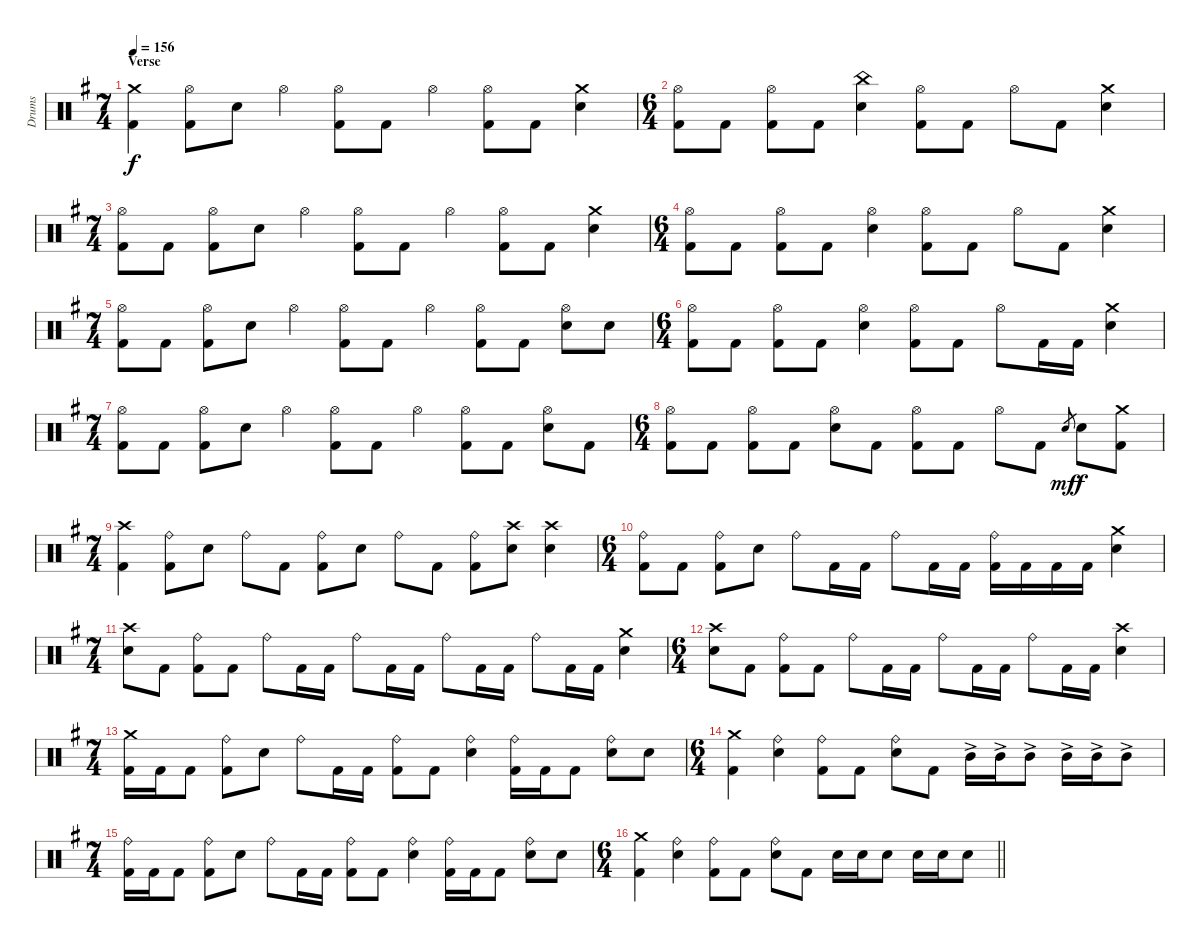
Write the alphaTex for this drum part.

\defaultSystemsLayout 4
\bracketExtendMode groupsimilarinstruments
\otherSystemsTrackNameOrientation horizontal
\track ("Drumkit" "Drums") {multiBarRest instrument percussion}
\staff {score}
\articulation defaults
\ts (7 4)
\beaming (8 2 2 2 2 2 2 2)
\section ("" "Verse")
\tempo 156
\clef neutral
\ks g
("Crash medium (hit)"{acc forcenatural} "Kick (hit) 2"{acc forcenatural}).4{dy f} ("Hi-Hat (open)"{acc forcenatural} "Kick (hit) 2"{acc forcenatural}).8 "Snare (hit) 2"{acc forcenatural}.8 "Hi-Hat (open)"{acc forcenatural}.4 ("Hi-Hat (open)"{acc forcenatural} "Kick (hit) 2"{acc forcenatural}).8 "Kick (hit) 2"{acc forcenatural}.8 "Hi-Hat (open)"{acc forcenatural}.4 ("Hi-Hat (open)"{acc forcenatural} "Kick (hit) 2"{acc forcenatural}).8 "Kick (hit) 2"{acc forcenatural}.8 ("Crash medium (hit)"{acc forcenatural} "Snare (hit) 2"{acc forcenatural}).4 |
\ts (6 4)
\beaming (8 2 2 2 2 2 2 2)
("Hi-Hat (open)"{acc forcenatural} "Kick (hit) 2"{acc forcenatural}).8 "Kick (hit) 2"{acc forcenatural}.8 ("Hi-Hat (open)"{acc forcenatural} "Kick (hit) 2"{acc forcenatural}).8 "Kick (hit) 2"{acc forcenatural}.8 ("Snare (hit) 2"{acc forcenatural} "China (hit)"{acc forcenatural}).4 ("Hi-Hat (open)"{acc forcenatural} "Kick (hit) 2"{acc forcenatural}).8 "Kick (hit) 2"{acc forcenatural}.8 "Hi-Hat (open)"{acc forcenatural}.8 "Kick (hit) 2"{acc forcenatural}.8 ("Crash medium (hit)"{acc forcenatural} "Snare (hit) 2"{acc forcenatural}).4 |
\ts (7 4)
\beaming (8 2 2 2 2 2 2 2)
("Hi-Hat (open)"{acc forcenatural} "Kick (hit) 2"{acc forcenatural}).8 "Kick (hit) 2"{acc forcenatural}.8 ("Hi-Hat (open)"{acc forcenatural} "Kick (hit) 2"{acc forcenatural}).8 "Snare (hit) 2"{acc forcenatural}.8 "Hi-Hat (open)"{acc forcenatural}.4 ("Hi-Hat (open)"{acc forcenatural} "Kick (hit) 2"{acc forcenatural}).8 "Kick (hit) 2"{acc forcenatural}.8 "Hi-Hat (open)"{acc forcenatural}.4 ("Hi-Hat (open)"{acc forcenatural} "Kick (hit) 2"{acc forcenatural}).8 "Kick (hit) 2"{acc forcenatural}.8 ("Crash medium (hit)"{acc forcenatural} "Snare (hit) 2"{acc forcenatural}).4 |
\ts (6 4)
\beaming (8 2 2 2 2 2 2 2)
("Hi-Hat (open)"{acc forcenatural} "Kick (hit) 2"{acc forcenatural}).8 "Kick (hit) 2"{acc forcenatural}.8 ("Hi-Hat (open)"{acc forcenatural} "Kick (hit) 2"{acc forcenatural}).8 "Kick (hit) 2"{acc forcenatural}.8 ("Hi-Hat (open)"{acc forcenatural} "Snare (hit) 2"{acc forcenatural}).4 ("Hi-Hat (open)"{acc forcenatural} "Kick (hit) 2"{acc forcenatural}).8 "Kick (hit) 2"{acc forcenatural}.8 "Hi-Hat (open)"{acc forcenatural}.8 "Kick (hit) 2"{acc forcenatural}.8 ("Crash medium (hit)"{acc forcenatural} "Snare (hit) 2"{acc forcenatural}).4 |
\ts (7 4)
\beaming (8 2 2 2 2 2 2 2)
("Hi-Hat (open)"{acc forcenatural} "Kick (hit) 2"{acc forcenatural}).8 "Kick (hit) 2"{acc forcenatural}.8 ("Hi-Hat (open)"{acc forcenatural} "Kick (hit) 2"{acc forcenatural}).8 "Snare (hit) 2"{acc forcenatural}.8 "Hi-Hat (open)"{acc forcenatural}.4 ("Hi-Hat (open)"{acc forcenatural} "Kick (hit) 2"{acc forcenatural}).8 "Kick (hit) 2"{acc forcenatural}.8 "Hi-Hat (open)"{acc forcenatural}.4 ("Hi-Hat (open)"{acc forcenatural} "Kick (hit) 2"{acc forcenatural}).8 "Kick (hit) 2"{acc forcenatural}.8 ("Hi-Hat (open)"{acc forcenatural} "Snare (hit) 2"{acc forcenatural}).8 "Snare (hit) 2"{acc forcenatural}.8 |
\ts (6 4)
\beaming (8 2 2 2 2 2 2 2)
("Hi-Hat (open)"{acc forcenatural} "Kick (hit) 2"{acc forcenatural}).8 "Kick (hit) 2"{acc forcenatural}.8 ("Hi-Hat (open)"{acc forcenatural} "Kick (hit) 2"{acc forcenatural}).8 "Kick (hit) 2"{acc forcenatural}.8 ("Hi-Hat (open)"{acc forcenatural} "Snare (hit) 2"{acc forcenatural}).4 ("Hi-Hat (open)"{acc forcenatural} "Kick (hit) 2"{acc forcenatural}).8 "Kick (hit) 2"{acc forcenatural}.8 "Hi-Hat (open)"{acc forcenatural}.8 "Kick (hit) 2"{acc forcenatural}.16 "Kick (hit) 2"{acc forcenatural}.16 ("Crash medium (hit)"{acc forcenatural} "Snare (hit) 2"{acc forcenatural}).4 |
\ts (7 4)
\beaming (8 2 2 2 2 2 2 2)
("Hi-Hat (open)"{acc forcenatural} "Kick (hit) 2"{acc forcenatural}).8 "Kick (hit) 2"{acc forcenatural}.8 ("Hi-Hat (open)"{acc forcenatural} "Kick (hit) 2"{acc forcenatural}).8 "Snare (hit) 2"{acc forcenatural}.8 "Hi-Hat (open)"{acc forcenatural}.4 ("Hi-Hat (open)"{acc forcenatural} "Kick (hit) 2"{acc forcenatural}).8 "Kick (hit) 2"{acc forcenatural}.8 "Hi-Hat (open)"{acc forcenatural}.4 ("Hi-Hat (open)"{acc forcenatural} "Kick (hit) 2"{acc forcenatural}).8 "Kick (hit) 2"{acc forcenatural}.8 ("Hi-Hat (open)"{acc forcenatural} "Snare (hit) 2"{acc forcenatural}).8 "Kick (hit) 2"{acc forcenatural}.8 |
\ts (6 4)
\beaming (8 2 2 2 2 2 2 2)
("Hi-Hat (open)"{acc forcenatural} "Kick (hit) 2"{acc forcenatural}).8 "Kick (hit) 2"{acc forcenatural}.8 ("Hi-Hat (open)"{acc forcenatural} "Kick (hit) 2"{acc forcenatural}).8 "Kick (hit) 2"{acc forcenatural}.8 ("Hi-Hat (open)"{acc forcenatural} "Snare (hit) 2"{acc forcenatural}).8 "Kick (hit) 2"{acc forcenatural}.8 ("Hi-Hat (open)"{acc forcenatural} "Kick (hit) 2"{acc forcenatural}).8 "Kick (hit) 2"{acc forcenatural}.8 "Hi-Hat (open)"{acc forcenatural}.8 "Kick (hit) 2"{acc forcenatural}.8 "Snare (hit) 2"{acc forcenatural}.8{gr dy mf} "Snare (hit) 2"{acc forcenatural}.8{dy f} ("Crash medium (hit)"{acc forcenatural} "Kick (hit) 2"{acc forcenatural}).8 |
\ts (7 4)
\beaming (8 2 2 2 2 2 2 2)
("Crash high (hit)"{acc forcenatural} "Kick (hit) 2"{acc forcenatural}).4 ("Ride (bell)"{acc forcenatural} "Kick (hit) 2"{acc forcenatural}).8 "Snare (hit) 2"{acc forcenatural}.8 "Ride (bell)"{acc forcenatural}.8 "Kick (hit) 2"{acc forcenatural}.8 ("Ride (bell)"{acc forcenatural} "Kick (hit) 2"{acc forcenatural}).8 "Snare (hit) 2"{acc forcenatural}.8 "Ride (bell)"{acc forcenatural}.8 "Kick (hit) 2"{acc forcenatural}.8 ("Ride (bell)"{acc forcenatural} "Kick (hit) 2"{acc forcenatural}).8 ("Crash high (hit)"{acc forcenatural} "Snare (hit) 2"{acc forcenatural}).8 ("Crash high (hit)"{acc forcenatural} "Snare (hit) 2"{acc forcenatural}).4 |
\ts (6 4)
\beaming (8 2 2 2 2 2 2 2)
("Ride (bell)"{acc forcenatural} "Kick (hit) 2"{acc forcenatural}).8 "Kick (hit) 2"{acc forcenatural}.8 ("Ride (bell)"{acc forcenatural} "Kick (hit) 2"{acc forcenatural}).8 "Snare (hit) 2"{acc forcenatural}.8 "Ride (bell)"{acc forcenatural}.8 "Kick (hit) 2"{acc forcenatural}.16 "Kick (hit) 2"{acc forcenatural}.16 "Ride (bell)"{acc forcenatural}.8 "Kick (hit) 2"{acc forcenatural}.16 "Kick (hit) 2"{acc forcenatural}.16 ("Ride (bell)"{acc forcenatural} "Kick (hit) 2"{acc forcenatural}).16 "Kick (hit) 2"{acc forcenatural}.16 "Kick (hit) 2"{acc forcenatural}.16 "Kick (hit) 2"{acc forcenatural}.16 ("Crash medium (hit)"{acc forcenatural} "Snare (hit) 2"{acc forcenatural}).4 |
\ts (7 4)
\beaming (8 2 2 2 2 2 2 2)
("Crash high (hit)"{acc forcenatural} "Snare (hit) 2"{acc forcenatural}).8 "Kick (hit) 2"{acc forcenatural}.8 ("Ride (bell)"{acc forcenatural} "Kick (hit) 2"{acc forcenatural}).8 "Kick (hit) 2"{acc forcenatural}.8 "Ride (bell)"{acc forcenatural}.8 "Kick (hit) 2"{acc forcenatural}.16 "Kick (hit) 2"{acc forcenatural}.16 "Ride (bell)"{acc forcenatural}.8 "Kick (hit) 2"{acc forcenatural}.16 "Kick (hit) 2"{acc forcenatural}.16 "Ride (bell)"{acc forcenatural}.8 "Kick (hit) 2"{acc forcenatural}.16 "Kick (hit) 2"{acc forcenatural}.16 "Ride (bell)"{acc forcenatural}.8 "Kick (hit) 2"{acc forcenatural}.16 "Kick (hit) 2"{acc forcenatural}.16 ("Crash medium (hit)"{acc forcenatural} "Snare (hit) 2"{acc forcenatural}).4 |
\ts (6 4)
\beaming (8 2 2 2 2 2 2 2)
("Crash high (hit)"{acc forcenatural} "Snare (hit) 2"{acc forcenatural}).8 "Kick (hit) 2"{acc forcenatural}.8 ("Ride (bell)"{acc forcenatural} "Kick (hit) 2"{acc forcenatural}).8 "Kick (hit) 2"{acc forcenatural}.8 "Ride (bell)"{acc forcenatural}.8 "Kick (hit) 2"{acc forcenatural}.16 "Kick (hit) 2"{acc forcenatural}.16 "Ride (bell)"{acc forcenatural}.8 "Kick (hit) 2"{acc forcenatural}.16 "Kick (hit) 2"{acc forcenatural}.16 "Ride (bell)"{acc forcenatural}.8 "Kick (hit) 2"{acc forcenatural}.16 "Kick (hit) 2"{acc forcenatural}.16 ("Crash high (hit)"{acc forcenatural} "Snare (hit) 2"{acc forcenatural}).4 |
\ts (7 4)
\beaming (8 2 2 2 2 2 2 2)
("Crash medium (hit)"{acc forcenatural} "Kick (hit) 2"{acc forcenatural}).16 "Kick (hit) 2"{acc forcenatural}.16 "Kick (hit) 2"{acc forcenatural}.8 ("Ride (bell)"{acc forcenatural} "Kick (hit) 2"{acc forcenatural}).8 "Snare (hit) 2"{acc forcenatural}.8 "Ride (bell)"{acc forcenatural}.8 "Kick (hit) 2"{acc forcenatural}.16 "Kick (hit) 2"{acc forcenatural}.16 ("Ride (bell)"{acc forcenatural} "Kick (hit) 2"{acc forcenatural}).8 "Kick (hit) 2"{acc forcenatural}.8 ("Ride (bell)"{acc forcenatural} "Snare (hit) 2"{acc forcenatural}).4 ("Ride (bell)"{acc forcenatural} "Kick (hit) 2"{acc forcenatural}).16 "Kick (hit) 2"{acc forcenatural}.16 "Kick (hit) 2"{acc forcenatural}.8 ("Snare (hit) 2"{acc forcenatural} "Ride (bell)"{acc forcenatural}).8 "Snare (hit) 2"{acc forcenatural}.8 |
\ts (6 4)
\beaming (8 2 2 2 2 2 2 2)
("Crash medium (hit)"{acc forcenatural} "Kick (hit) 2"{acc forcenatural}).4 ("Ride (bell)"{acc forcenatural} "Snare (hit) 2"{acc forcenatural}).4 ("Ride (bell)"{acc forcenatural} "Kick (hit) 2"{acc forcenatural}).8 "Kick (hit) 2"{acc forcenatural}.8 ("Ride (bell)"{acc forcenatural} "Snare (hit) 2"{acc forcenatural}).8 "Kick (hit) 2"{acc forcenatural}.8 "Mid Tom (hit)"{ac acc forcenatural}.16 "Mid Tom (hit)"{ac acc forcenatural}.16 "Mid Tom (hit)"{ac acc forcenatural}.8 "Mid Tom (hit)"{ac acc forcenatural}.16 "Mid Tom (hit)"{ac acc forcenatural}.16 "Mid Tom (hit)"{ac acc forcenatural}.8 |
\ts (7 4)
\beaming (8 2 2 2 2 2 2 2)
("Kick (hit) 2"{acc forcenatural} "Ride (bell)"{acc forcenatural}).16 "Kick (hit) 2"{acc forcenatural}.16 "Kick (hit) 2"{acc forcenatural}.8 ("Ride (bell)"{acc forcenatural} "Kick (hit) 2"{acc forcenatural}).8 "Snare (hit) 2"{acc forcenatural}.8 "Ride (bell)"{acc forcenatural}.8 "Kick (hit) 2"{acc forcenatural}.16 "Kick (hit) 2"{acc forcenatural}.16 ("Ride (bell)"{acc forcenatural} "Kick (hit) 2"{acc forcenatural}).8 "Kick (hit) 2"{acc forcenatural}.8 ("Ride (bell)"{acc forcenatural} "Snare (hit) 2"{acc forcenatural}).4 ("Ride (bell)"{acc forcenatural} "Kick (hit) 2"{acc forcenatural}).16 "Kick (hit) 2"{acc forcenatural}.16 "Kick (hit) 2"{acc forcenatural}.8 ("Snare (hit) 2"{acc forcenatural} "Ride (bell)"{acc forcenatural}).8 "Snare (hit) 2"{acc forcenatural}.8 |
\ts (6 4)
\beaming (8 2 2 2 2 2 2 2)
\barLineRight lightlight
("Crash medium (hit)"{acc forcenatural} "Kick (hit) 2"{acc forcenatural}).4 ("Ride (bell)"{acc forcenatural} "Snare (hit) 2"{acc forcenatural}).4 ("Ride (bell)"{acc forcenatural} "Kick (hit) 2"{acc forcenatural}).8 "Kick (hit) 2"{acc forcenatural}.8 ("Ride (bell)"{acc forcenatural} "Snare (hit) 2"{acc forcenatural}).8 "Kick (hit) 2"{acc forcenatural}.8 "Snare (hit) 2"{acc forcenatural}.16 "Snare (hit) 2"{acc forcenatural}.16 "Snare (hit) 2"{acc forcenatural}.8 "Snare (hit) 2"{acc forcenatural}.16 "Snare (hit) 2"{acc forcenatural}.16 "Snare (hit) 2"{acc forcenatural}.8
